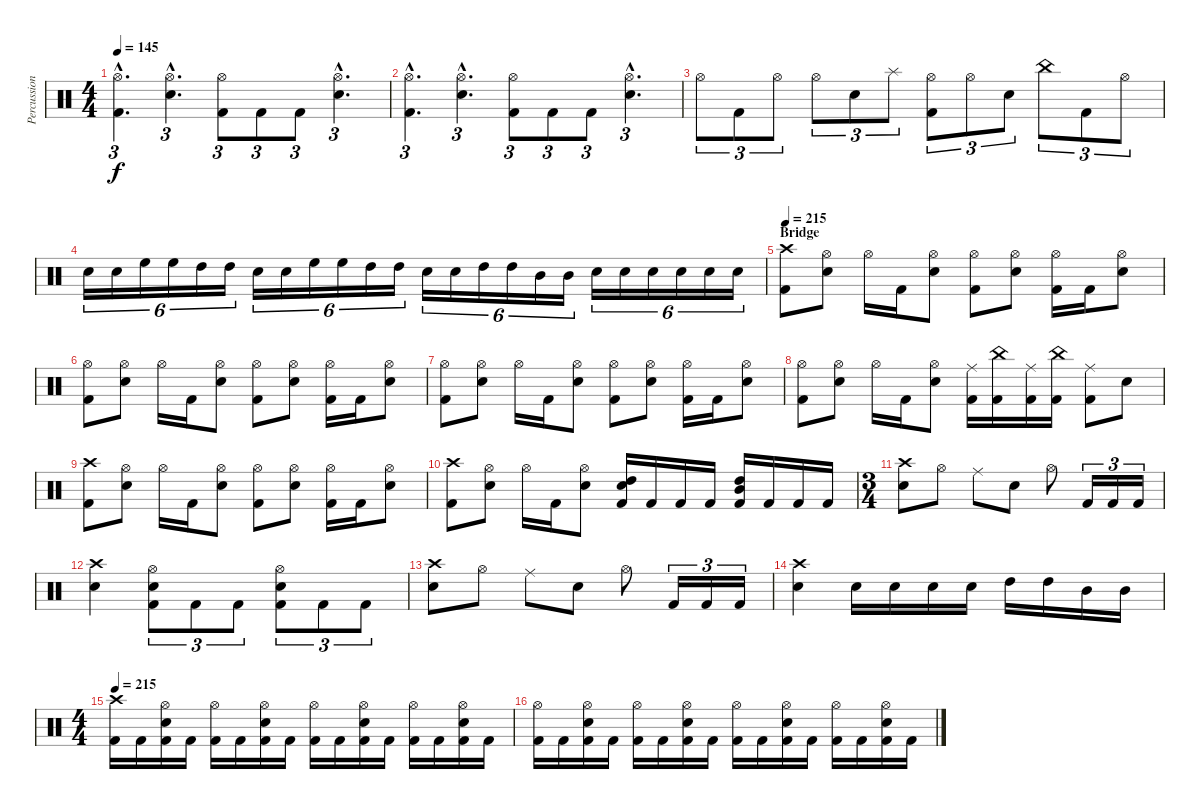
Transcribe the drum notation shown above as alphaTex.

\track ("Percussion" "Percussion") {instrument percussion}
\staff {score}
\articulation defaults
\ts (4 4)
\tempo 145
\clef neutral
\ks c
("Hi-Hat (open)"{hac} "Kick (hit) 2"{hac}).4{d tu (3 2) dy f} ("Hi-Hat (open)"{hac} "Electric Snare (hit)"{hac}).4{d tu (3 2)} ("Hi-Hat (open)" "Kick (hit) 2").8{tu (3 2)} "Kick (hit) 2".8{tu (3 2)} "Kick (hit) 2".8{tu (3 2)} ("Hi-Hat (open)"{hac} "Electric Snare (hit)"{hac}).4{d tu (3 2)} |
("Hi-Hat (open)"{hac} "Kick (hit) 2"{hac}).4{d tu (3 2)} ("Hi-Hat (open)"{hac} "Electric Snare (hit)"{hac}).4{d tu (3 2)} ("Hi-Hat (open)" "Kick (hit) 2").8{tu (3 2)} "Kick (hit) 2".8{tu (3 2)} "Kick (hit) 2".8{tu (3 2)} ("Hi-Hat (open)"{hac} "Electric Snare (hit)"{hac}).4{d tu (3 2)} |
"Hi-Hat (open)".8{tu (3 2)} "Kick (hit) 2".8{tu (3 2)} "Hi-Hat (open)".8{tu (3 2)} "Hi-Hat (open)".8{tu (3 2)} "Electric Snare (hit)".8{tu (3 2)} "Splash (hit)".8{tu (3 2)} ("Hi-Hat (open)" "Kick (hit) 2").8{tu (3 2)} "Hi-Hat (open)".8{tu (3 2)} "Electric Snare (hit)".8{tu (3 2)} "China (hit)".8{tu (3 2)} "Kick (hit) 2".8{tu (3 2)} "Hi-Hat (open)".8{tu (3 2)} |
"Electric Snare (hit)".16{tu (6 4)} "Electric Snare (hit)".16{tu (6 4)} "High Floor Tom (hit)".16{tu (6 4)} "High Floor Tom (hit)".16{tu (6 4)} "High Tom (hit)".16{tu (6 4)} "High Tom (hit)".16{tu (6 4)} "Electric Snare (hit)".16{tu (6 4)} "Electric Snare (hit)".16{tu (6 4)} "High Floor Tom (hit)".16{tu (6 4)} "High Floor Tom (hit)".16{tu (6 4)} "High Tom (hit)".16{tu (6 4)} "High Tom (hit)".16{tu (6 4)} "Electric Snare (hit)".16{tu (6 4)} "Electric Snare (hit)".16{tu (6 4)} "High Tom (hit)".16{tu (6 4)} "High Tom (hit)".16{tu (6 4)} "Mid Tom (hit)".16{tu (6 4)} "Mid Tom (hit)".16{tu (6 4)} "Electric Snare (hit)".16{tu (6 4)} "Electric Snare (hit)".16{tu (6 4)} "Electric Snare (hit)".16{tu (6 4)} "Electric Snare (hit)".16{tu (6 4)} "Electric Snare (hit)".16{tu (6 4)} "Electric Snare (hit)".16{tu (6 4)} |
\section ("" "Bridge")
\tempo 215
("Crash high (hit)" "Kick (hit) 2").8 ("Hi-Hat (open)" "Electric Snare (hit)").8 "Hi-Hat (open)".16 "Kick (hit) 2".16 ("Hi-Hat (open)" "Electric Snare (hit)").8 ("Hi-Hat (open)" "Kick (hit) 2").8 ("Hi-Hat (open)" "Electric Snare (hit)").8 ("Hi-Hat (open)" "Kick (hit) 2").16 "Kick (hit) 2".16 ("Hi-Hat (open)" "Electric Snare (hit)").8 |
("Hi-Hat (open)" "Kick (hit) 2").8 ("Hi-Hat (open)" "Electric Snare (hit)").8 "Hi-Hat (open)".16 "Kick (hit) 2".16 ("Hi-Hat (open)" "Electric Snare (hit)").8 ("Hi-Hat (open)" "Kick (hit) 2").8 ("Hi-Hat (open)" "Electric Snare (hit)").8 ("Hi-Hat (open)" "Kick (hit) 2").16 "Kick (hit) 2".16 ("Hi-Hat (open)" "Electric Snare (hit)").8 |
("Hi-Hat (open)" "Kick (hit) 2").8 ("Hi-Hat (open)" "Electric Snare (hit)").8 "Hi-Hat (open)".16 "Kick (hit) 2".16 ("Hi-Hat (open)" "Electric Snare (hit)").8 ("Hi-Hat (open)" "Kick (hit) 2").8 ("Hi-Hat (open)" "Electric Snare (hit)").8 ("Hi-Hat (open)" "Kick (hit) 2").16 "Kick (hit) 2".16 ("Hi-Hat (open)" "Electric Snare (hit)").8 |
("Hi-Hat (open)" "Kick (hit) 2").8 ("Hi-Hat (open)" "Electric Snare (hit)").8 "Hi-Hat (open)".16 "Kick (hit) 2".16 ("Hi-Hat (open)" "Electric Snare (hit)").8 ("Ride (middle)" "Kick (hit) 2").16 ("China (hit)" "Kick (hit) 2").16 ("Ride (middle)" "Kick (hit) 2").16 ("China (hit)" "Kick (hit) 2").16 ("Ride (middle)" "Kick (hit) 2").8 "Electric Snare (hit)".8 |
("Crash high (hit)" "Kick (hit) 2").8 ("Hi-Hat (open)" "Electric Snare (hit)").8 "Hi-Hat (open)".16 "Kick (hit) 2".16 ("Hi-Hat (open)" "Electric Snare (hit)").8 ("Hi-Hat (open)" "Kick (hit) 2").8 ("Hi-Hat (open)" "Electric Snare (hit)").8 ("Hi-Hat (open)" "Kick (hit) 2").16 "Kick (hit) 2".16 ("Hi-Hat (open)" "Electric Snare (hit)").8 |
("Crash high (hit)" "Kick (hit) 2").8 ("Hi-Hat (open)" "Electric Snare (hit)").8 "Hi-Hat (open)".16 "Kick (hit) 2".16 ("Hi-Hat (open)" "Electric Snare (hit)").8 ("High Tom (hit)" "Electric Snare (hit)" "Kick (hit) 2").16 "Kick (hit) 2".16 "Kick (hit) 2".16 "Kick (hit) 2".16 ("High Tom (hit)" "Mid Tom (hit)" "Kick (hit) 2").16 "Kick (hit) 2".16 "Kick (hit) 2".16 "Kick (hit) 2".16 |
\ts (3 4)
("Crash high (hit)" "Electric Snare (hit)").8 "Hi-Hat (open)".8 "Ride (middle)".8 "Electric Snare (hit)".8 "Hi-Hat (open)".8 "Kick (hit) 2".16{tu (3 2)} "Kick (hit) 2".16{tu (3 2)} "Kick (hit) 2".16{tu (3 2)} |
("Crash high (hit)" "Electric Snare (hit)").4 ("Hi-Hat (open)" "Electric Snare (hit)" "Kick (hit) 2").8{tu (3 2)} "Kick (hit) 2".8{tu (3 2)} "Kick (hit) 2".8{tu (3 2)} ("Hi-Hat (open)" "Electric Snare (hit)" "Kick (hit) 2").8{tu (3 2)} "Kick (hit) 2".8{tu (3 2)} "Kick (hit) 2".8{tu (3 2)} |
("Crash high (hit)" "Electric Snare (hit)").8 "Hi-Hat (open)".8 "Ride (middle)".8 "Electric Snare (hit)".8 "Hi-Hat (open)".8 "Kick (hit) 2".16{tu (3 2)} "Kick (hit) 2".16{tu (3 2)} "Kick (hit) 2".16{tu (3 2)} |
("Crash high (hit)" "Electric Snare (hit)").4 "Electric Snare (hit)".16 "Electric Snare (hit)".16 "Electric Snare (hit)".16 "Electric Snare (hit)".16 "High Tom (hit)".16 "High Tom (hit)".16 "Mid Tom (hit)".16 "Mid Tom (hit)".16 |
\ts (4 4)
\tempo 215
("Crash high (hit)" "Kick (hit) 2").16 "Kick (hit) 2".16 ("Hi-Hat (open)" "Electric Snare (hit)" "Kick (hit) 2").16 "Kick (hit) 2".16 ("Hi-Hat (open)" "Kick (hit) 2").16 "Kick (hit) 2".16 ("Hi-Hat (open)" "Electric Snare (hit)" "Kick (hit) 2").16 "Kick (hit) 2".16 ("Hi-Hat (open)" "Kick (hit) 2").16 "Kick (hit) 2".16 ("Hi-Hat (open)" "Electric Snare (hit)" "Kick (hit) 2").16 "Kick (hit) 2".16 ("Hi-Hat (open)" "Kick (hit) 2").16 "Kick (hit) 2".16 ("Hi-Hat (open)" "Electric Snare (hit)" "Kick (hit) 2").16 "Kick (hit) 2".16 |
("Hi-Hat (open)" "Kick (hit) 2").16 "Kick (hit) 2".16 ("Hi-Hat (open)" "Electric Snare (hit)" "Kick (hit) 2").16 "Kick (hit) 2".16 ("Hi-Hat (open)" "Kick (hit) 2").16 "Kick (hit) 2".16 ("Hi-Hat (open)" "Electric Snare (hit)" "Kick (hit) 2").16 "Kick (hit) 2".16 ("Hi-Hat (open)" "Kick (hit) 2").16 "Kick (hit) 2".16 ("Hi-Hat (open)" "Electric Snare (hit)" "Kick (hit) 2").16 "Kick (hit) 2".16 ("Hi-Hat (open)" "Kick (hit) 2").16 "Kick (hit) 2".16 ("Hi-Hat (open)" "Electric Snare (hit)" "Kick (hit) 2").16 "Kick (hit) 2".16
